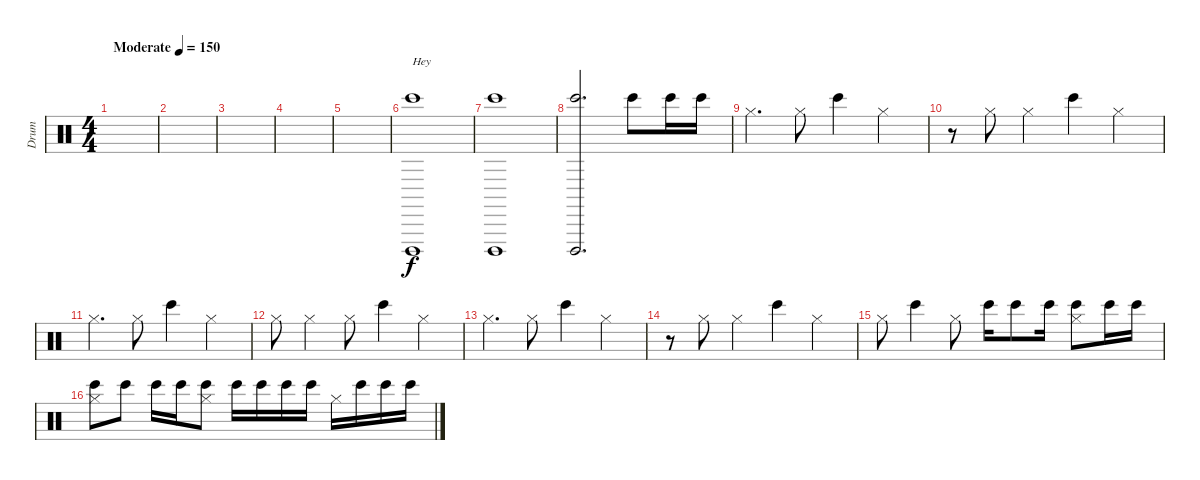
\track ("Drum" "Drum") {instrument percussion}
\staff {score}
\articulation defaults
\ts (4 4)
\tempo (150 "Moderate")
\clef neutral
\ks c
|
|
|
|
|
("Cuica (open)" "Bongo High (hit)").1{txt "Hey"} |
("Cuica (open)" "Bongo High (hit)").1 |
("Cuica (open)" "Bongo High (hit)").2{d} "Bongo High (hit)".8 "Bongo High (hit)".16 "Bongo High (hit)".16 |
"Hi-Hat (closed)".4{d} "Hi-Hat (closed)".8 "Bongo High (hit)".4 "Hi-Hat (closed)".4 |
r.8 "Hi-Hat (closed)".8 "Hi-Hat (closed)".4 "Bongo High (hit)".4 "Hi-Hat (closed)".4 |
"Hi-Hat (closed)".4{d} "Hi-Hat (closed)".8 "Bongo High (hit)".4 "Hi-Hat (closed)".4 |
"Hi-Hat (closed)".8 "Hi-Hat (closed)".4 "Hi-Hat (closed)".8 "Bongo High (hit)".4 "Hi-Hat (closed)".4 |
"Hi-Hat (closed)".4{d} "Hi-Hat (closed)".8 "Bongo High (hit)".4 "Hi-Hat (closed)".4 |
r.8 "Hi-Hat (closed)".8 "Hi-Hat (closed)".4 "Bongo High (hit)".4 "Hi-Hat (closed)".4 |
"Hi-Hat (closed)".8 "Bongo High (hit)".4 "Hi-Hat (closed)".8 "Bongo High (hit)".16 "Bongo High (hit)".8 "Bongo High (hit)".16 ("Bongo High (hit)" "Hi-Hat (closed)").8 "Bongo High (hit)".16 "Bongo High (hit)".16 |
("Bongo High (hit)" "Hi-Hat (closed)").8 "Bongo High (hit)".8 "Bongo High (hit)".16 "Bongo High (hit)".16 ("Bongo High (hit)" "Hi-Hat (closed)").8 "Bongo High (hit)".16 "Bongo High (hit)".16 "Bongo High (hit)".16 "Bongo High (hit)".16 "Hi-Hat (closed)".16 "Bongo High (hit)".16 "Bongo High (hit)".16 "Bongo High (hit)".16
